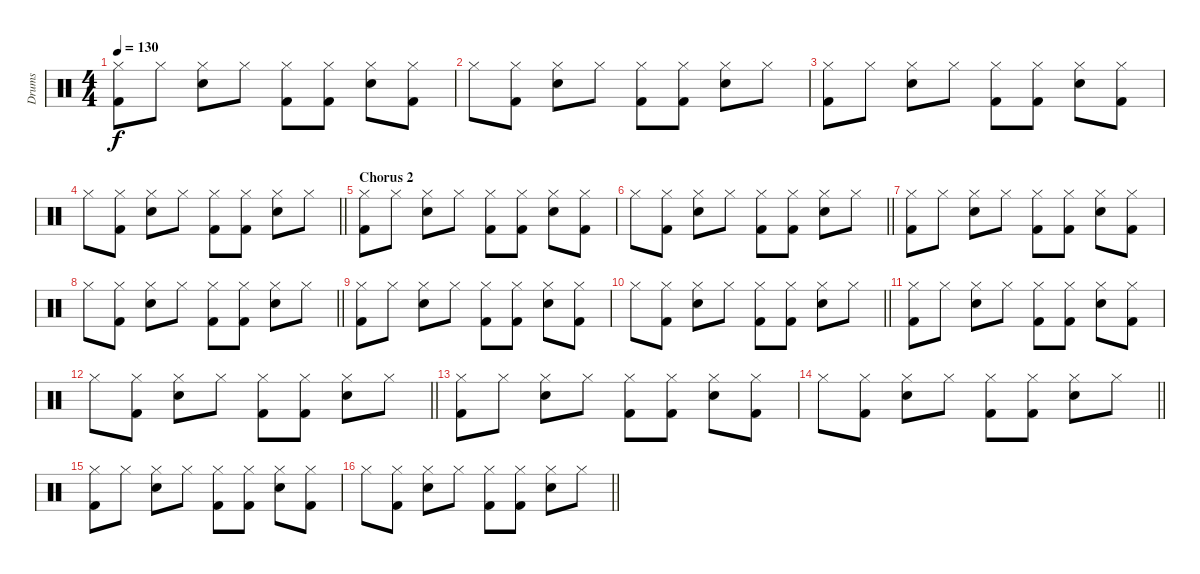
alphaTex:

\track ("Drums" "Drums") {instrument percussion}
\staff {score}
\articulation defaults
\ts (4 4)
\tempo 130
\clef neutral
\ks c
("Hi-Hat (closed)" "Kick (hit) 2").8{dy f} "Hi-Hat (closed)".8 ("Hi-Hat (closed)" "Electric Snare (hit)").8 "Hi-Hat (closed)".8 ("Hi-Hat (closed)" "Kick (hit) 2").8 ("Hi-Hat (closed)" "Kick (hit) 2").8 ("Hi-Hat (closed)" "Electric Snare (hit)").8 ("Hi-Hat (closed)" "Kick (hit) 2").8 |
"Hi-Hat (closed)".8 ("Hi-Hat (closed)" "Kick (hit) 2").8 ("Hi-Hat (closed)" "Electric Snare (hit)").8 "Hi-Hat (closed)".8 ("Hi-Hat (closed)" "Kick (hit) 2").8 ("Hi-Hat (closed)" "Kick (hit) 2").8 ("Hi-Hat (closed)" "Electric Snare (hit)").8 "Hi-Hat (closed)".8 |
("Hi-Hat (closed)" "Kick (hit) 2").8 "Hi-Hat (closed)".8 ("Hi-Hat (closed)" "Electric Snare (hit)").8 "Hi-Hat (closed)".8 ("Hi-Hat (closed)" "Kick (hit) 2").8 ("Hi-Hat (closed)" "Kick (hit) 2").8 ("Hi-Hat (closed)" "Electric Snare (hit)").8 ("Hi-Hat (closed)" "Kick (hit) 2").8 |
\barLineRight lightlight "Hi-Hat (closed)".8
("Hi-Hat (closed)" "Kick (hit) 2").8 ("Hi-Hat (closed)" "Electric Snare (hit)").8 "Hi-Hat (closed)".8 ("Hi-Hat (closed)" "Kick (hit) 2").8 ("Hi-Hat (closed)" "Kick (hit) 2").8 ("Hi-Hat (closed)" "Electric Snare (hit)").8 "Hi-Hat (closed)".8 |
\section ("" "Chorus 2")
("Hi-Hat (closed)" "Kick (hit) 2").8 "Hi-Hat (closed)".8 ("Hi-Hat (closed)" "Electric Snare (hit)").8 "Hi-Hat (closed)".8 ("Hi-Hat (closed)" "Kick (hit) 2").8 ("Hi-Hat (closed)" "Kick (hit) 2").8 ("Hi-Hat (closed)" "Electric Snare (hit)").8 ("Hi-Hat (closed)" "Kick (hit) 2").8 |
\barLineRight lightlight "Hi-Hat (closed)".8
("Hi-Hat (closed)" "Kick (hit) 2").8 ("Hi-Hat (closed)" "Electric Snare (hit)").8 "Hi-Hat (closed)".8 ("Hi-Hat (closed)" "Kick (hit) 2").8 ("Hi-Hat (closed)" "Kick (hit) 2").8 ("Hi-Hat (closed)" "Electric Snare (hit)").8 "Hi-Hat (closed)".8 |
("Hi-Hat (closed)" "Kick (hit) 2").8 "Hi-Hat (closed)".8 ("Hi-Hat (closed)" "Electric Snare (hit)").8 "Hi-Hat (closed)".8 ("Hi-Hat (closed)" "Kick (hit) 2").8 ("Hi-Hat (closed)" "Kick (hit) 2").8 ("Hi-Hat (closed)" "Electric Snare (hit)").8 ("Hi-Hat (closed)" "Kick (hit) 2").8 |
\barLineRight lightlight "Hi-Hat (closed)".8
("Hi-Hat (closed)" "Kick (hit) 2").8 ("Hi-Hat (closed)" "Electric Snare (hit)").8 "Hi-Hat (closed)".8 ("Hi-Hat (closed)" "Kick (hit) 2").8 ("Hi-Hat (closed)" "Kick (hit) 2").8 ("Hi-Hat (closed)" "Electric Snare (hit)").8 "Hi-Hat (closed)".8 |
("Hi-Hat (closed)" "Kick (hit) 2").8 "Hi-Hat (closed)".8 ("Hi-Hat (closed)" "Electric Snare (hit)").8 "Hi-Hat (closed)".8 ("Hi-Hat (closed)" "Kick (hit) 2").8 ("Hi-Hat (closed)" "Kick (hit) 2").8 ("Hi-Hat (closed)" "Electric Snare (hit)").8 ("Hi-Hat (closed)" "Kick (hit) 2").8 |
\barLineRight lightlight "Hi-Hat (closed)".8
("Hi-Hat (closed)" "Kick (hit) 2").8 ("Hi-Hat (closed)" "Electric Snare (hit)").8 "Hi-Hat (closed)".8 ("Hi-Hat (closed)" "Kick (hit) 2").8 ("Hi-Hat (closed)" "Kick (hit) 2").8 ("Hi-Hat (closed)" "Electric Snare (hit)").8 "Hi-Hat (closed)".8 |
("Hi-Hat (closed)" "Kick (hit) 2").8 "Hi-Hat (closed)".8 ("Hi-Hat (closed)" "Electric Snare (hit)").8 "Hi-Hat (closed)".8 ("Hi-Hat (closed)" "Kick (hit) 2").8 ("Hi-Hat (closed)" "Kick (hit) 2").8 ("Hi-Hat (closed)" "Electric Snare (hit)").8 ("Hi-Hat (closed)" "Kick (hit) 2").8 |
\barLineRight lightlight "Hi-Hat (closed)".8
("Hi-Hat (closed)" "Kick (hit) 2").8 ("Hi-Hat (closed)" "Electric Snare (hit)").8 "Hi-Hat (closed)".8 ("Hi-Hat (closed)" "Kick (hit) 2").8 ("Hi-Hat (closed)" "Kick (hit) 2").8 ("Hi-Hat (closed)" "Electric Snare (hit)").8 "Hi-Hat (closed)".8 |
("Hi-Hat (closed)" "Kick (hit) 2").8 "Hi-Hat (closed)".8 ("Hi-Hat (closed)" "Electric Snare (hit)").8 "Hi-Hat (closed)".8 ("Hi-Hat (closed)" "Kick (hit) 2").8 ("Hi-Hat (closed)" "Kick (hit) 2").8 ("Hi-Hat (closed)" "Electric Snare (hit)").8 ("Hi-Hat (closed)" "Kick (hit) 2").8 |
\barLineRight lightlight "Hi-Hat (closed)".8
("Hi-Hat (closed)" "Kick (hit) 2").8 ("Hi-Hat (closed)" "Electric Snare (hit)").8 "Hi-Hat (closed)".8 ("Hi-Hat (closed)" "Kick (hit) 2").8 ("Hi-Hat (closed)" "Kick (hit) 2").8 ("Hi-Hat (closed)" "Electric Snare (hit)").8 "Hi-Hat (closed)".8 |
("Hi-Hat (closed)" "Kick (hit) 2").8 "Hi-Hat (closed)".8 ("Hi-Hat (closed)" "Electric Snare (hit)").8 "Hi-Hat (closed)".8 ("Hi-Hat (closed)" "Kick (hit) 2").8 ("Hi-Hat (closed)" "Kick (hit) 2").8 ("Hi-Hat (closed)" "Electric Snare (hit)").8 ("Hi-Hat (closed)" "Kick (hit) 2").8 |
\barLineRight lightlight "Hi-Hat (closed)".8
("Hi-Hat (closed)" "Kick (hit) 2").8 ("Hi-Hat (closed)" "Electric Snare (hit)").8 "Hi-Hat (closed)".8 ("Hi-Hat (closed)" "Kick (hit) 2").8 ("Hi-Hat (closed)" "Kick (hit) 2").8 ("Hi-Hat (closed)" "Electric Snare (hit)").8 "Hi-Hat (closed)".8
